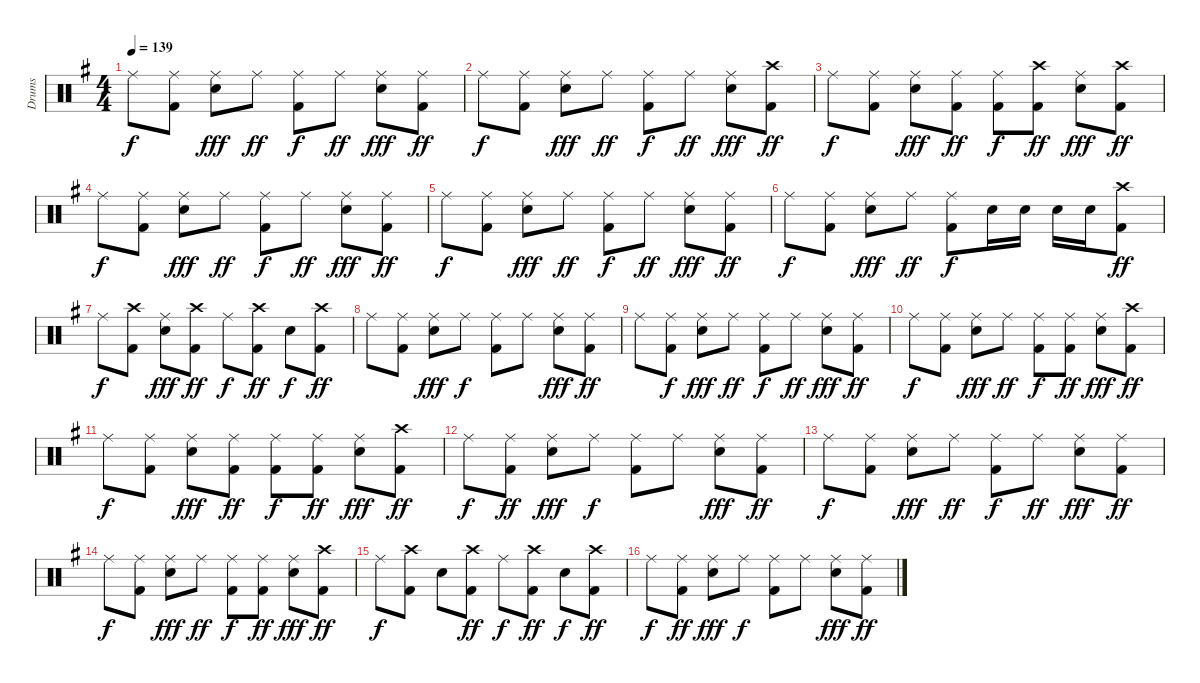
\track ("Drums" "Drums") {instrument percussion}
\staff {score}
\articulation defaults
\ts (4 4)
\tempo 139
\clef neutral
\ks g "Ride (middle)".8{dy f}
("Ride (middle)" "Kick (hit) 2").8 ("Ride (middle)" "Snare (hit) 2").8{dy fff} "Ride (middle)".8{dy ff} ("Ride (middle)" "Kick (hit) 2").8{dy f} "Ride (middle)".8{dy ff} ("Ride (middle)" "Snare (hit) 2").8{dy fff} ("Ride (middle)" "Kick (hit) 2").8{dy ff} |
"Ride (middle)".8{dy f} ("Ride (middle)" "Kick (hit) 2").8 ("Ride (middle)" "Snare (hit) 2").8{dy fff} "Ride (middle)".8{dy ff} ("Ride (middle)" "Kick (hit) 2").8{dy f} "Ride (middle)".8{dy ff} ("Ride (middle)" "Snare (hit) 2").8{dy fff} ("Crash high (hit)" "Kick (hit) 2").8{dy ff} |
"Ride (middle)".8{dy f} ("Ride (middle)" "Kick (hit) 2").8 ("Ride (middle)" "Snare (hit) 2").8{dy fff} ("Ride (middle)" "Kick (hit) 2").8{dy ff} ("Ride (middle)" "Kick (hit) 2").8{dy f} ("Crash high (hit)" "Kick (hit) 2").8{dy ff} ("Ride (middle)" "Snare (hit) 2").8{dy fff} ("Crash high (hit)" "Kick (hit) 2").8{dy ff} |
"Ride (middle)".8{dy f} ("Ride (middle)" "Kick (hit) 2").8 ("Ride (middle)" "Snare (hit) 2").8{dy fff} "Ride (middle)".8{dy ff} ("Ride (middle)" "Kick (hit) 2").8{dy f} "Ride (middle)".8{dy ff} ("Ride (middle)" "Snare (hit) 2").8{dy fff} ("Ride (middle)" "Kick (hit) 2").8{dy ff} |
"Ride (middle)".8{dy f} ("Ride (middle)" "Kick (hit) 2").8 ("Ride (middle)" "Snare (hit) 2").8{dy fff} "Ride (middle)".8{dy ff} ("Ride (middle)" "Kick (hit) 2").8{dy f} "Ride (middle)".8{dy ff} ("Ride (middle)" "Snare (hit) 2").8{dy fff} ("Ride (middle)" "Kick (hit) 2").8{dy ff} |
"Ride (middle)".8{dy f} ("Ride (middle)" "Kick (hit) 2").8 ("Ride (middle)" "Snare (hit) 2").8{dy fff} "Ride (middle)".8{dy ff} ("Ride (middle)" "Kick (hit) 2").8{dy f} "Snare (hit) 2".16 "Snare (hit) 2".16 "Snare (hit) 2".16 "Snare (hit) 2".16 ("Crash high (hit)" "Kick (hit) 2").8{dy ff} |
"Ride (middle)".8{dy f} ("Crash high (hit)" "Kick (hit) 2").8 ("Ride (middle)" "Snare (hit) 2").8{dy fff} ("Crash high (hit)" "Kick (hit) 2").8{dy ff} "Ride (middle)".8{dy f} ("Crash high (hit)" "Kick (hit) 2").8{dy ff} "Snare (hit) 2".8{dy f} ("Crash high (hit)" "Kick (hit) 2").8{dy ff} |
"Ride (middle)".8 ("Ride (middle)" "Kick (hit) 2").8 ("Ride (middle)" "Snare (hit) 2").8{dy fff} "Ride (middle)".8{dy f} ("Ride (middle)" "Kick (hit) 2").8 "Ride (middle)".8 ("Ride (middle)" "Snare (hit) 2").8{dy fff} ("Ride (middle)" "Kick (hit) 2").8{dy ff} |
"Ride (middle)".8 ("Ride (middle)" "Kick (hit) 2").8{dy f} ("Ride (middle)" "Snare (hit) 2").8{dy fff} "Ride (middle)".8{dy ff} ("Ride (middle)" "Kick (hit) 2").8{dy f} "Ride (middle)".8{dy ff} ("Ride (middle)" "Snare (hit) 2").8{dy fff} ("Ride (middle)" "Kick (hit) 2").8{dy ff} |
"Ride (middle)".8{dy f} ("Ride (middle)" "Kick (hit) 2").8 ("Ride (middle)" "Snare (hit) 2").8{dy fff} "Ride (middle)".8{dy ff} ("Ride (middle)" "Kick (hit) 2").8{dy f} ("Ride (middle)" "Kick (hit) 2").8{dy ff} ("Ride (middle)" "Snare (hit) 2").8{dy fff} ("Crash high (hit)" "Kick (hit) 2").8{dy ff} |
"Ride (middle)".8{dy f} ("Ride (middle)" "Kick (hit) 2").8 ("Ride (middle)" "Snare (hit) 2").8{dy fff} ("Ride (middle)" "Kick (hit) 2").8{dy ff} ("Ride (middle)" "Kick (hit) 2").8{dy f} ("Ride (middle)" "Kick (hit) 2").8{dy ff} ("Ride (middle)" "Snare (hit) 2").8{dy fff} ("Crash high (hit)" "Kick (hit) 2").8{dy ff} |
"Ride (middle)".8{dy f} ("Ride (middle)" "Kick (hit) 2").8{dy ff} ("Ride (middle)" "Snare (hit) 2").8{dy fff} "Ride (middle)".8{dy f} ("Ride (middle)" "Kick (hit) 2").8 "Ride (middle)".8 ("Ride (middle)" "Snare (hit) 2").8{dy fff} ("Ride (middle)" "Kick (hit) 2").8{dy ff} |
"Ride (middle)".8{dy f} ("Ride (middle)" "Kick (hit) 2").8 ("Ride (middle)" "Snare (hit) 2").8{dy fff} "Ride (middle)".8{dy ff} ("Ride (middle)" "Kick (hit) 2").8{dy f} "Ride (middle)".8{dy ff} ("Ride (middle)" "Snare (hit) 2").8{dy fff} ("Ride (middle)" "Kick (hit) 2").8{dy ff} |
"Ride (middle)".8{dy f} ("Ride (middle)" "Kick (hit) 2").8 ("Ride (middle)" "Snare (hit) 2").8{dy fff} "Ride (middle)".8{dy ff} ("Ride (middle)" "Kick (hit) 2").8{dy f} ("Ride (middle)" "Kick (hit) 2").8{dy ff} ("Ride (middle)" "Snare (hit) 2").8{dy fff} ("Crash high (hit)" "Kick (hit) 2").8{dy ff} |
"Ride (middle)".8{dy f} ("Crash high (hit)" "Kick (hit) 2").8 "Snare (hit) 2".8 ("Crash high (hit)" "Kick (hit) 2").8{dy ff} "Ride (middle)".8{dy f} ("Crash high (hit)" "Kick (hit) 2").8{dy ff} "Snare (hit) 2".8{dy f} ("Crash high (hit)" "Kick (hit) 2").8{dy ff} |
"Ride (middle)".8{dy f} ("Ride (middle)" "Kick (hit) 2").8{dy ff} ("Ride (middle)" "Snare (hit) 2").8{dy fff} "Ride (middle)".8{dy f} ("Ride (middle)" "Kick (hit) 2").8 "Ride (middle)".8 ("Ride (middle)" "Snare (hit) 2").8{dy fff} ("Ride (middle)" "Kick (hit) 2").8{dy ff}
